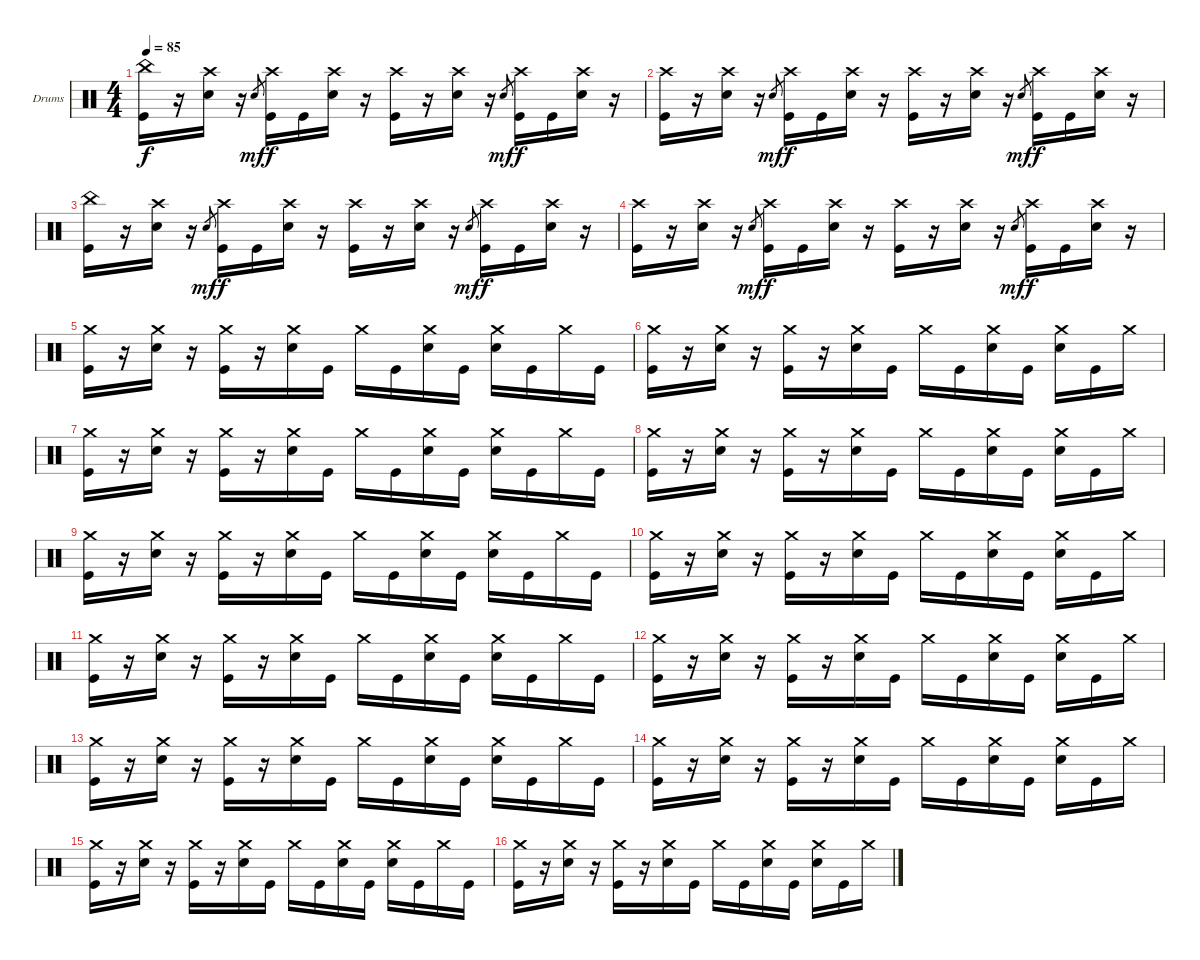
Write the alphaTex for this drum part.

\defaultSystemsLayout 4
\bracketExtendMode groupsimilarinstruments
\firstSystemTrackNameOrientation horizontal
\otherSystemsTrackNameOrientation horizontal
\track ("Drumkit" "Drums") {instrument percussion}
\staff {score}
\articulation defaults
\ts (4 4)
\tempo 85
\clef neutral
\ks c
("China (hit)" "Kick (hit)").16{dy f} r.16 ("Crash high (hit)" "Snare (hit) 2").16 r.16 "Snare (hit) 2".8{gr dy mf} ("Crash high (hit)" "Kick (hit)").16{dy f} "Kick (hit)".16 ("Crash high (hit)" "Snare (hit) 2").16 r.16 ("Crash high (hit)" "Kick (hit)").16 r.16 ("Crash high (hit)" "Snare (hit) 2").16 r.16 "Snare (hit) 2".8{gr dy mf} ("Crash high (hit)" "Kick (hit)").16{dy f} "Kick (hit)".16 ("Crash high (hit)" "Snare (hit) 2").16 r.16 |
("Crash high (hit)" "Kick (hit)").16 r.16 ("Crash high (hit)" "Snare (hit) 2").16 r.16 "Snare (hit) 2".8{gr dy mf} ("Crash high (hit)" "Kick (hit)").16{dy f} "Kick (hit)".16 ("Crash high (hit)" "Snare (hit) 2").16 r.16 ("Crash high (hit)" "Kick (hit)").16 r.16 ("Crash high (hit)" "Snare (hit) 2").16 r.16 "Snare (hit) 2".8{gr dy mf} ("Crash high (hit)" "Kick (hit)").16{dy f} "Kick (hit)".16 ("Crash high (hit)" "Snare (hit) 2").16 r.16 |
("China (hit)" "Kick (hit)").16 r.16 ("Crash high (hit)" "Snare (hit) 2").16 r.16 "Snare (hit) 2".8{gr dy mf} ("Crash high (hit)" "Kick (hit)").16{dy f} "Kick (hit)".16 ("Crash high (hit)" "Snare (hit) 2").16 r.16 ("Crash high (hit)" "Kick (hit)").16 r.16 ("Crash high (hit)" "Snare (hit) 2").16 r.16 "Snare (hit) 2".8{gr dy mf} ("Crash high (hit)" "Kick (hit)").16{dy f} "Kick (hit)".16 ("Crash high (hit)" "Snare (hit) 2").16 r.16 |
("Crash high (hit)" "Kick (hit)").16 r.16 ("Crash high (hit)" "Snare (hit) 2").16 r.16 "Snare (hit) 2".8{gr dy mf} ("Crash high (hit)" "Kick (hit)").16{dy f} "Kick (hit)".16 ("Crash high (hit)" "Snare (hit) 2").16 r.16 ("Crash high (hit)" "Kick (hit)").16 r.16 ("Crash high (hit)" "Snare (hit) 2").16 r.16 "Snare (hit) 2".8{gr dy mf} ("Crash high (hit)" "Kick (hit)").16{dy f} "Kick (hit)".16 ("Crash high (hit)" "Snare (hit) 2").16 r.16 |
("Crash medium (hit)" "Kick (hit)").16 r.16 ("Crash medium (hit)" "Snare (hit) 2").16 r.16 ("Crash medium (hit)" "Kick (hit)").16 r.16 ("Crash medium (hit)" "Snare (hit) 2").16 "Kick (hit)".16 "Crash medium (hit)".16 "Kick (hit)".16 ("Crash medium (hit)" "Snare (hit) 2").16 "Kick (hit)".16 ("Crash medium (hit)" "Snare (hit) 2").16 "Kick (hit)".16 "Crash medium (hit)".16 "Kick (hit)".16 |
("Crash medium (hit)" "Kick (hit)").16 r.16 ("Crash medium (hit)" "Snare (hit) 2").16 r.16 ("Crash medium (hit)" "Kick (hit)").16 r.16 ("Crash medium (hit)" "Snare (hit) 2").16 "Kick (hit)".16 "Crash medium (hit)".16 "Kick (hit)".16 ("Crash medium (hit)" "Snare (hit) 2").16 "Kick (hit)".16 ("Crash medium (hit)" "Snare (hit) 2").16 "Kick (hit)".16 "Crash medium (hit)".16 |
("Crash medium (hit)" "Kick (hit)").16 r.16 ("Crash medium (hit)" "Snare (hit) 2").16 r.16 ("Crash medium (hit)" "Kick (hit)").16 r.16 ("Crash medium (hit)" "Snare (hit) 2").16 "Kick (hit)".16 "Crash medium (hit)".16 "Kick (hit)".16 ("Crash medium (hit)" "Snare (hit) 2").16 "Kick (hit)".16 ("Crash medium (hit)" "Snare (hit) 2").16 "Kick (hit)".16 "Crash medium (hit)".16 "Kick (hit)".16 |
("Crash medium (hit)" "Kick (hit)").16 r.16 ("Crash medium (hit)" "Snare (hit) 2").16 r.16 ("Crash medium (hit)" "Kick (hit)").16 r.16 ("Crash medium (hit)" "Snare (hit) 2").16 "Kick (hit)".16 "Crash medium (hit)".16 "Kick (hit)".16 ("Crash medium (hit)" "Snare (hit) 2").16 "Kick (hit)".16 ("Crash medium (hit)" "Snare (hit) 2").16 "Kick (hit)".16 "Crash medium (hit)".16 |
("Crash medium (hit)" "Kick (hit)").16 r.16 ("Crash medium (hit)" "Snare (hit) 2").16 r.16 ("Crash medium (hit)" "Kick (hit)").16 r.16 ("Crash medium (hit)" "Snare (hit) 2").16 "Kick (hit)".16 "Crash medium (hit)".16 "Kick (hit)".16 ("Crash medium (hit)" "Snare (hit) 2").16 "Kick (hit)".16 ("Crash medium (hit)" "Snare (hit) 2").16 "Kick (hit)".16 "Crash medium (hit)".16 "Kick (hit)".16 |
("Crash medium (hit)" "Kick (hit)").16 r.16 ("Crash medium (hit)" "Snare (hit) 2").16 r.16 ("Crash medium (hit)" "Kick (hit)").16 r.16 ("Crash medium (hit)" "Snare (hit) 2").16 "Kick (hit)".16 "Crash medium (hit)".16 "Kick (hit)".16 ("Crash medium (hit)" "Snare (hit) 2").16 "Kick (hit)".16 ("Crash medium (hit)" "Snare (hit) 2").16 "Kick (hit)".16 "Crash medium (hit)".16 |
("Crash medium (hit)" "Kick (hit)").16 r.16 ("Crash medium (hit)" "Snare (hit) 2").16 r.16 ("Crash medium (hit)" "Kick (hit)").16 r.16 ("Crash medium (hit)" "Snare (hit) 2").16 "Kick (hit)".16 "Crash medium (hit)".16 "Kick (hit)".16 ("Crash medium (hit)" "Snare (hit) 2").16 "Kick (hit)".16 ("Crash medium (hit)" "Snare (hit) 2").16 "Kick (hit)".16 "Crash medium (hit)".16 "Kick (hit)".16 |
("Crash medium (hit)" "Kick (hit)").16 r.16 ("Crash medium (hit)" "Snare (hit) 2").16 r.16 ("Crash medium (hit)" "Kick (hit)").16 r.16 ("Crash medium (hit)" "Snare (hit) 2").16 "Kick (hit)".16 "Crash medium (hit)".16 "Kick (hit)".16 ("Crash medium (hit)" "Snare (hit) 2").16 "Kick (hit)".16 ("Crash medium (hit)" "Snare (hit) 2").16 "Kick (hit)".16 "Crash medium (hit)".16 |
("Crash medium (hit)" "Kick (hit)").16 r.16 ("Crash medium (hit)" "Snare (hit) 2").16 r.16 ("Crash medium (hit)" "Kick (hit)").16 r.16 ("Crash medium (hit)" "Snare (hit) 2").16 "Kick (hit)".16 "Crash medium (hit)".16 "Kick (hit)".16 ("Crash medium (hit)" "Snare (hit) 2").16 "Kick (hit)".16 ("Crash medium (hit)" "Snare (hit) 2").16 "Kick (hit)".16 "Crash medium (hit)".16 "Kick (hit)".16 |
("Crash medium (hit)" "Kick (hit)").16 r.16 ("Crash medium (hit)" "Snare (hit) 2").16 r.16 ("Crash medium (hit)" "Kick (hit)").16 r.16 ("Crash medium (hit)" "Snare (hit) 2").16 "Kick (hit)".16 "Crash medium (hit)".16 "Kick (hit)".16 ("Crash medium (hit)" "Snare (hit) 2").16 "Kick (hit)".16 ("Crash medium (hit)" "Snare (hit) 2").16 "Kick (hit)".16 "Crash medium (hit)".16 |
("Crash medium (hit)" "Kick (hit)").16 r.16 ("Crash medium (hit)" "Snare (hit) 2").16 r.16 ("Crash medium (hit)" "Kick (hit)").16 r.16 ("Crash medium (hit)" "Snare (hit) 2").16 "Kick (hit)".16 "Crash medium (hit)".16 "Kick (hit)".16 ("Crash medium (hit)" "Snare (hit) 2").16 "Kick (hit)".16 ("Crash medium (hit)" "Snare (hit) 2").16 "Kick (hit)".16 "Crash medium (hit)".16 "Kick (hit)".16 |
("Crash medium (hit)" "Kick (hit)").16 r.16 ("Crash medium (hit)" "Snare (hit) 2").16 r.16 ("Crash medium (hit)" "Kick (hit)").16 r.16 ("Crash medium (hit)" "Snare (hit) 2").16 "Kick (hit)".16 "Crash medium (hit)".16 "Kick (hit)".16 ("Crash medium (hit)" "Snare (hit) 2").16 "Kick (hit)".16 ("Crash medium (hit)" "Snare (hit) 2").16 "Kick (hit)".16 "Crash medium (hit)".16
